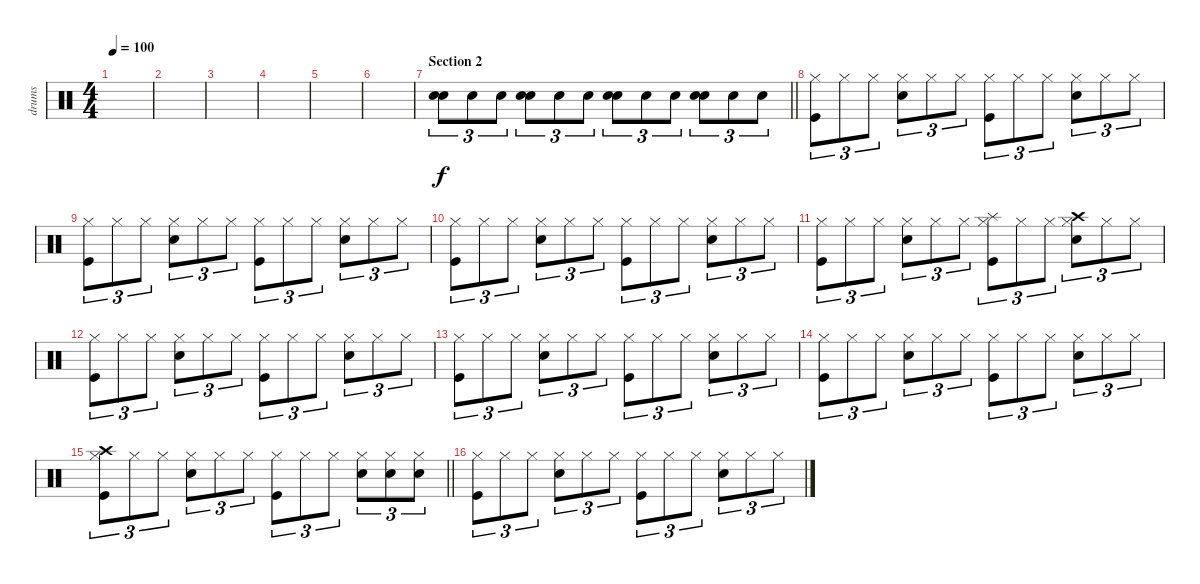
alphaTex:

\track ("drums" "drums") {instrument percussion}
\staff {score}
\articulation defaults
\ts (4 4)
\tempo 100
\clef neutral
\ks c
|
|
|
|
|
|
\section ("" "Section 2")
\barLineRight lightlight
("Snare (hit) 2" "Snare (hit) 2").8{tu (3 2)} "Snare (hit) 2".8{tu (3 2)} "Snare (hit) 2".8{tu (3 2)} ("Snare (hit) 2" "Snare (hit) 2").8{tu (3 2)} "Snare (hit) 2".8{tu (3 2)} "Snare (hit) 2".8{tu (3 2)} ("Snare (hit) 2" "Snare (hit) 2").8{tu (3 2)} "Snare (hit) 2".8{tu (3 2)} "Snare (hit) 2".8{tu (3 2)} ("Snare (hit) 2" "Snare (hit) 2").8{tu (3 2)} "Snare (hit) 2".8{tu (3 2)} "Snare (hit) 2".8{tu (3 2)} |
\section ("" "")
("Hi-Hat (closed)" "Kick (hit)").8{tu (3 2)} "Hi-Hat (closed)".8{tu (3 2)} "Hi-Hat (closed)".8{tu (3 2)} ("Hi-Hat (closed)" "Snare (hit) 2").8{tu (3 2)} "Hi-Hat (closed)".8{tu (3 2)} "Hi-Hat (closed)".8{tu (3 2)} ("Hi-Hat (closed)" "Kick (hit)").8{tu (3 2)} "Hi-Hat (closed)".8{tu (3 2)} "Hi-Hat (closed)".8{tu (3 2)} ("Hi-Hat (closed)" "Snare (hit) 2").8{tu (3 2)} "Hi-Hat (closed)".8{tu (3 2)} "Hi-Hat (closed)".8{tu (3 2)} |
\section ("" "")
("Hi-Hat (closed)" "Kick (hit)").8{tu (3 2)} "Hi-Hat (closed)".8{tu (3 2)} "Hi-Hat (closed)".8{tu (3 2)} ("Hi-Hat (closed)" "Snare (hit) 2").8{tu (3 2)} "Hi-Hat (closed)".8{tu (3 2)} "Hi-Hat (closed)".8{tu (3 2)} ("Hi-Hat (closed)" "Kick (hit)").8{tu (3 2)} "Hi-Hat (closed)".8{tu (3 2)} "Hi-Hat (closed)".8{tu (3 2)} ("Hi-Hat (closed)" "Snare (hit) 2").8{tu (3 2)} "Hi-Hat (closed)".8{tu (3 2)} "Hi-Hat (closed)".8{tu (3 2)} |
("Hi-Hat (closed)" "Kick (hit)").8{tu (3 2)} "Hi-Hat (closed)".8{tu (3 2)} "Hi-Hat (closed)".8{tu (3 2)} ("Hi-Hat (closed)" "Snare (hit) 2").8{tu (3 2)} "Hi-Hat (closed)".8{tu (3 2)} "Hi-Hat (closed)".8{tu (3 2)} ("Hi-Hat (closed)" "Kick (hit)").8{tu (3 2)} "Hi-Hat (closed)".8{tu (3 2)} "Hi-Hat (closed)".8{tu (3 2)} ("Hi-Hat (closed)" "Snare (hit) 2").8{tu (3 2)} "Hi-Hat (closed)".8{tu (3 2)} "Hi-Hat (closed)".8{tu (3 2)} |
("Hi-Hat (closed)" "Kick (hit)").8{tu (3 2)} "Hi-Hat (closed)".8{tu (3 2)} "Hi-Hat (closed)".8{tu (3 2)} ("Hi-Hat (closed)" "Snare (hit) 2").8{tu (3 2)} "Hi-Hat (closed)".8{tu (3 2)} "Hi-Hat (closed)".8{tu (3 2)} ("Hi-Hat (closed)" "Splash (hit)" "Kick (hit)").8{tu (3 2)} "Hi-Hat (closed)".8{tu (3 2)} "Hi-Hat (closed)".8{tu (3 2)} ("Hi-Hat (closed)" "Crash high (hit)" "Snare (hit) 2").8{tu (3 2)} "Hi-Hat (closed)".8{tu (3 2)} "Hi-Hat (closed)".8{tu (3 2)} |
("Hi-Hat (closed)" "Kick (hit)").8{tu (3 2)} "Hi-Hat (closed)".8{tu (3 2)} "Hi-Hat (closed)".8{tu (3 2)} ("Hi-Hat (closed)" "Snare (hit) 2").8{tu (3 2)} "Hi-Hat (closed)".8{tu (3 2)} "Hi-Hat (closed)".8{tu (3 2)} ("Hi-Hat (closed)" "Kick (hit)").8{tu (3 2)} "Hi-Hat (closed)".8{tu (3 2)} "Hi-Hat (closed)".8{tu (3 2)} ("Hi-Hat (closed)" "Snare (hit) 2").8{tu (3 2)} "Hi-Hat (closed)".8{tu (3 2)} "Hi-Hat (closed)".8{tu (3 2)} |
("Hi-Hat (closed)" "Kick (hit)").8{tu (3 2)} "Hi-Hat (closed)".8{tu (3 2)} "Hi-Hat (closed)".8{tu (3 2)} ("Hi-Hat (closed)" "Snare (hit) 2").8{tu (3 2)} "Hi-Hat (closed)".8{tu (3 2)} "Hi-Hat (closed)".8{tu (3 2)} ("Hi-Hat (closed)" "Kick (hit)").8{tu (3 2)} "Hi-Hat (closed)".8{tu (3 2)} "Hi-Hat (closed)".8{tu (3 2)} ("Hi-Hat (closed)" "Snare (hit) 2").8{tu (3 2)} "Hi-Hat (closed)".8{tu (3 2)} "Hi-Hat (closed)".8{tu (3 2)} |
("Hi-Hat (closed)" "Kick (hit)").8{tu (3 2)} "Hi-Hat (closed)".8{tu (3 2)} "Hi-Hat (closed)".8{tu (3 2)} ("Hi-Hat (closed)" "Snare (hit) 2").8{tu (3 2)} "Hi-Hat (closed)".8{tu (3 2)} "Hi-Hat (closed)".8{tu (3 2)} ("Hi-Hat (closed)" "Kick (hit)").8{tu (3 2)} "Hi-Hat (closed)".8{tu (3 2)} "Hi-Hat (closed)".8{tu (3 2)} ("Hi-Hat (closed)" "Snare (hit) 2").8{tu (3 2)} "Hi-Hat (closed)".8{tu (3 2)} "Hi-Hat (closed)".8{tu (3 2)} |
\barLineRight lightlight
("Hi-Hat (closed)" "Crash high (hit)" "Kick (hit)").8{tu (3 2)} "Hi-Hat (closed)".8{tu (3 2)} "Hi-Hat (closed)".8{tu (3 2)} ("Hi-Hat (closed)" "Snare (hit) 2").8{tu (3 2)} "Hi-Hat (closed)".8{tu (3 2)} "Hi-Hat (closed)".8{tu (3 2)} ("Hi-Hat (closed)" "Kick (hit)").8{tu (3 2)} "Hi-Hat (closed)".8{tu (3 2)} "Hi-Hat (closed)".8{tu (3 2)} ("Hi-Hat (closed)" "Snare (hit) 2").8{tu (3 2)} ("Hi-Hat (closed)" "Snare (hit) 2").8{tu (3 2)} ("Hi-Hat (closed)" "Snare (hit) 2").8{tu (3 2)} |
("Hi-Hat (closed)" "Kick (hit)").8{tu (3 2)} "Hi-Hat (closed)".8{tu (3 2)} "Hi-Hat (closed)".8{tu (3 2)} ("Hi-Hat (closed)" "Snare (hit) 2").8{tu (3 2)} "Hi-Hat (closed)".8{tu (3 2)} "Hi-Hat (closed)".8{tu (3 2)} ("Hi-Hat (closed)" "Kick (hit)").8{tu (3 2)} "Hi-Hat (closed)".8{tu (3 2)} "Hi-Hat (closed)".8{tu (3 2)} ("Hi-Hat (closed)" "Snare (hit) 2").8{tu (3 2)} "Hi-Hat (closed)".8{tu (3 2)} "Hi-Hat (closed)".8{tu (3 2)}
